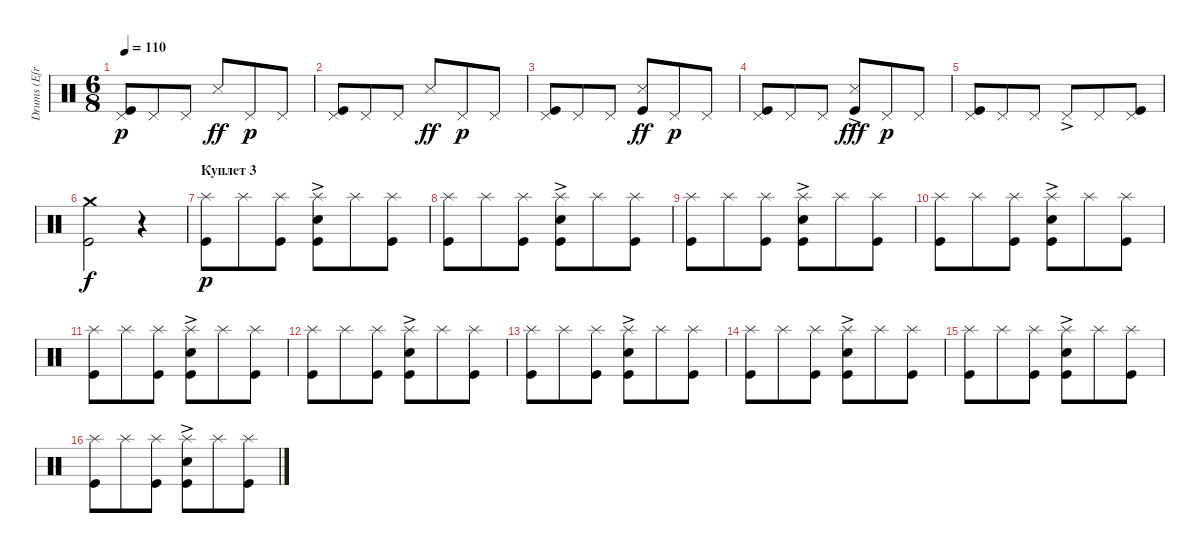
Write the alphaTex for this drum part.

\track ("Drums (Efremov)" "Drums (Efr") {instrument percussion}
\staff {score}
\articulation defaults
\ts (6 8)
\tempo 110
\clef neutral
\ks c
("Pedal Hi-Hat (hit)" "Kick (hit)").8{dy p} "Pedal Hi-Hat (hit)".8 "Pedal Hi-Hat (hit)".8 "Snare (side stick) 3".8{dy ff} "Pedal Hi-Hat (hit)".8{dy p} "Pedal Hi-Hat (hit)".8 |
("Pedal Hi-Hat (hit)" "Kick (hit)").8 "Pedal Hi-Hat (hit)".8 "Pedal Hi-Hat (hit)".8 "Snare (side stick) 3".8{dy ff} "Pedal Hi-Hat (hit)".8{dy p} "Pedal Hi-Hat (hit)".8 |
("Pedal Hi-Hat (hit)" "Kick (hit)").8 "Pedal Hi-Hat (hit)".8 "Pedal Hi-Hat (hit)".8 ("Kick (hit)" "Snare (side stick) 3").8{dy ff} "Pedal Hi-Hat (hit)".8{dy p} "Pedal Hi-Hat (hit)".8 |
("Pedal Hi-Hat (hit)" "Kick (hit)").8 "Pedal Hi-Hat (hit)".8 "Pedal Hi-Hat (hit)".8 ("Kick (hit)" "Snare (side stick) 3"{ac}).8{dy fff} "Pedal Hi-Hat (hit)".8{dy p} "Pedal Hi-Hat (hit)".8 |
("Pedal Hi-Hat (hit)" "Kick (hit)").8 "Pedal Hi-Hat (hit)".8 "Pedal Hi-Hat (hit)".8 "Pedal Hi-Hat (hit)"{ac}.8 "Pedal Hi-Hat (hit)".8 ("Kick (hit)" "Pedal Hi-Hat (hit)").8 |
("Crash medium (hit)" "Kick (hit)").2{dy f} r.4 |
\section ("" "Куплет 3")
("Splash (hit)" "Kick (hit)").8{dy p} "Splash (hit)".8 ("Kick (hit)" "Splash (hit)").8 ("Electric Snare (hit)" "Kick (hit)" "Splash (hit)"{ac}).8 "Splash (hit)".8 ("Kick (hit)" "Splash (hit)").8 |
("Splash (hit)" "Kick (hit)").8 "Splash (hit)".8 ("Kick (hit)" "Splash (hit)").8 ("Electric Snare (hit)" "Kick (hit)" "Splash (hit)"{ac}).8 "Splash (hit)".8 ("Kick (hit)" "Splash (hit)").8 |
("Splash (hit)" "Kick (hit)").8 "Splash (hit)".8 ("Kick (hit)" "Splash (hit)").8 ("Electric Snare (hit)" "Kick (hit)" "Splash (hit)"{ac}).8 "Splash (hit)".8 ("Kick (hit)" "Splash (hit)").8 |
("Splash (hit)" "Kick (hit)").8 "Splash (hit)".8 ("Kick (hit)" "Splash (hit)").8 ("Electric Snare (hit)" "Kick (hit)" "Splash (hit)"{ac}).8 "Splash (hit)".8 ("Kick (hit)" "Splash (hit)").8 |
("Splash (hit)" "Kick (hit)").8 "Splash (hit)".8 ("Kick (hit)" "Splash (hit)").8 ("Electric Snare (hit)" "Kick (hit)" "Splash (hit)"{ac}).8 "Splash (hit)".8 ("Kick (hit)" "Splash (hit)").8 |
("Splash (hit)" "Kick (hit)").8 "Splash (hit)".8 ("Kick (hit)" "Splash (hit)").8 ("Electric Snare (hit)" "Kick (hit)" "Splash (hit)"{ac}).8 "Splash (hit)".8 ("Kick (hit)" "Splash (hit)").8 |
("Splash (hit)" "Kick (hit)").8 "Splash (hit)".8 ("Kick (hit)" "Splash (hit)").8 ("Electric Snare (hit)" "Kick (hit)" "Splash (hit)"{ac}).8 "Splash (hit)".8 ("Kick (hit)" "Splash (hit)").8 |
("Splash (hit)" "Kick (hit)").8 "Splash (hit)".8 ("Kick (hit)" "Splash (hit)").8 ("Electric Snare (hit)" "Kick (hit)" "Splash (hit)"{ac}).8 "Splash (hit)".8 ("Kick (hit)" "Splash (hit)").8 |
("Splash (hit)" "Kick (hit)").8 "Splash (hit)".8 ("Kick (hit)" "Splash (hit)").8 ("Electric Snare (hit)" "Kick (hit)" "Splash (hit)"{ac}).8 "Splash (hit)".8 ("Kick (hit)" "Splash (hit)").8 |
("Splash (hit)" "Kick (hit)").8 "Splash (hit)".8 ("Kick (hit)" "Splash (hit)").8 ("Electric Snare (hit)" "Kick (hit)" "Splash (hit)"{ac}).8 "Splash (hit)".8 ("Kick (hit)" "Splash (hit)").8
